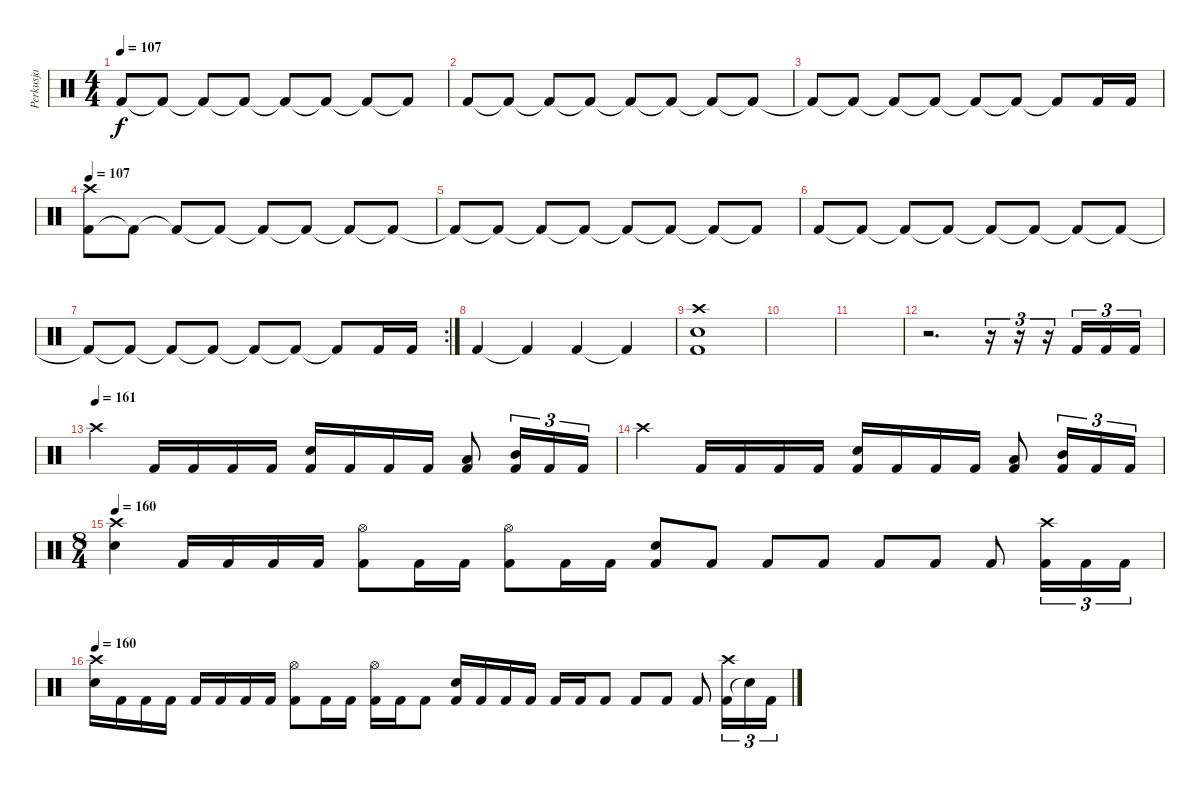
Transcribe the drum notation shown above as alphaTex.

\track ("Perkusja" "Perkusja") {instrument percussion}
\staff {score}
\articulation defaults
\ts (4 4)
\tempo 107
\clef neutral
\ks c "Kick (hit) 2"{t}.8{dy f} "Kick (hit) 2"{t}.8 "Kick (hit) 2"{t}.8 "Kick (hit) 2"{t}.8 "Kick (hit) 2"{t}.8 "Kick (hit) 2"{t}.8 "Kick (hit) 2"{t}.8 "Kick (hit) 2"{t}.8
|
"Kick (hit) 2".8 "Kick (hit) 2"{t}.8 "Kick (hit) 2"{t}.8 "Kick (hit) 2"{t}.8 "Kick (hit) 2"{t}.8 "Kick (hit) 2"{t}.8 "Kick (hit) 2"{t}.8 "Kick (hit) 2"{t}.8 |
"Kick (hit) 2"{t}.8 "Kick (hit) 2"{t}.8 "Kick (hit) 2"{t}.8 "Kick (hit) 2"{t}.8 "Kick (hit) 2"{t}.8 "Kick (hit) 2"{t}.8 "Kick (hit) 2"{t}.8 "Kick (hit) 2".16 "Kick (hit) 2".16 |
\tempo 107
("Kick (hit) 2" "Crash high (hit)").8 "Kick (hit) 2"{t}.8 "Kick (hit) 2"{t}.8 "Kick (hit) 2"{t}.8 "Kick (hit) 2"{t}.8 "Kick (hit) 2"{t}.8 "Kick (hit) 2"{t}.8 "Kick (hit) 2"{t}.8 |
"Kick (hit) 2"{t}.8 "Kick (hit) 2"{t}.8 "Kick (hit) 2"{t}.8 "Kick (hit) 2"{t}.8 "Kick (hit) 2"{t}.8 "Kick (hit) 2"{t}.8 "Kick (hit) 2"{t}.8 "Kick (hit) 2"{t}.8 |
"Kick (hit) 2".8 "Kick (hit) 2"{t}.8 "Kick (hit) 2"{t}.8 "Kick (hit) 2"{t}.8 "Kick (hit) 2"{t}.8 "Kick (hit) 2"{t}.8 "Kick (hit) 2"{t}.8 "Kick (hit) 2"{t}.8 |
\rc 2 "Kick (hit) 2"{t}.8 "Kick (hit) 2"{t}.8 "Kick (hit) 2"{t}.8 "Kick (hit) 2"{t}.8 "Kick (hit) 2"{t}.8 "Kick (hit) 2"{t}.8 "Kick (hit) 2"{t}.8 "Kick (hit) 2".16 "Kick (hit) 2".16
|
"Kick (hit) 2".4 "Kick (hit) 2"{t}.4 "Kick (hit) 2".4 "Kick (hit) 2"{t}.4 |
("Kick (hit) 2" "Snare (hit) 2" "Crash high (hit)").1 |
|
|
r.2{d} r.16{tu (3 2)} r.16{tu (3 2)} r.16{tu (3 2)} "Kick (hit) 2".16{tu (3 2)} "Kick (hit) 2".16{tu (3 2)} "Kick (hit) 2".16{tu (3 2)} |
\tempo (161)
"Crash high (hit)".4 "Kick (hit) 2".16 "Kick (hit) 2".16 "Kick (hit) 2".16 "Kick (hit) 2".16 ("Kick (hit) 2" "Snare (hit) 2").16 "Kick (hit) 2".16 "Kick (hit) 2".16 "Kick (hit) 2".16 ("Kick (hit) 2" "Low Tom (hit)").8 ("Kick (hit) 2" "Mid Tom (hit)").16{tu (3 2)} "Kick (hit) 2".16{tu (3 2)} "Kick (hit) 2".16{tu (3 2)} |
"Crash high (hit)".4 "Kick (hit) 2".16 "Kick (hit) 2".16 "Kick (hit) 2".16 "Kick (hit) 2".16 ("Kick (hit) 2" "Snare (hit) 2").16 "Kick (hit) 2".16 "Kick (hit) 2".16 "Kick (hit) 2".16 ("Kick (hit) 2" "Low Tom (hit)").8 ("Kick (hit) 2" "Mid Tom (hit)").16{tu (3 2)} "Kick (hit) 2".16{tu (3 2)} "Kick (hit) 2".16{tu (3 2)} |
\ts (8 4)
\tempo 160
("Crash high (hit)" "Snare (hit) 2").4 "Kick (hit) 2".16 "Kick (hit) 2".16 "Kick (hit) 2".16 "Kick (hit) 2".16 ("Kick (hit) 2" "Hi-Hat (open)").8 "Kick (hit) 2".16 "Kick (hit) 2".16 ("Kick (hit) 2" "Hi-Hat (open)").8 "Kick (hit) 2".16 "Kick (hit) 2".16 ("Kick (hit) 2" "Snare (hit) 2").8 "Kick (hit) 2".8 "Kick (hit) 2".8 "Kick (hit) 2".8 "Kick (hit) 2".8 "Kick (hit) 2".8 "Kick (hit) 2".8 ("Kick (hit) 2" "Crash high (hit)").16{tu (3 2)} "Kick (hit) 2".16{tu (3 2)} "Kick (hit) 2".16{tu (3 2)} |
\tempo 160
("Crash high (hit)" "Snare (hit) 2").16 "Kick (hit) 2".16 "Kick (hit) 2".16 "Kick (hit) 2".16 "Kick (hit) 2".16 "Kick (hit) 2".16 "Kick (hit) 2".16 "Kick (hit) 2".16 ("Kick (hit) 2" "Hi-Hat (open)").8 "Kick (hit) 2".16 "Kick (hit) 2".16 ("Kick (hit) 2" "Hi-Hat (open)").16 "Kick (hit) 2".16 "Kick (hit) 2".8 ("Kick (hit) 2" "Snare (hit) 2").16 "Kick (hit) 2".16 "Kick (hit) 2".16 "Kick (hit) 2".16 "Kick (hit) 2".16 "Kick (hit) 2".16 "Kick (hit) 2".8 "Kick (hit) 2".8 "Kick (hit) 2".8 "Kick (hit) 2".8 ("Kick (hit) 2" "Crash high (hit)").16{tu (3 2)} "Snare (hit)"{t}.16{tu (3 2)} "Kick (hit) 2".16{tu (3 2)}
